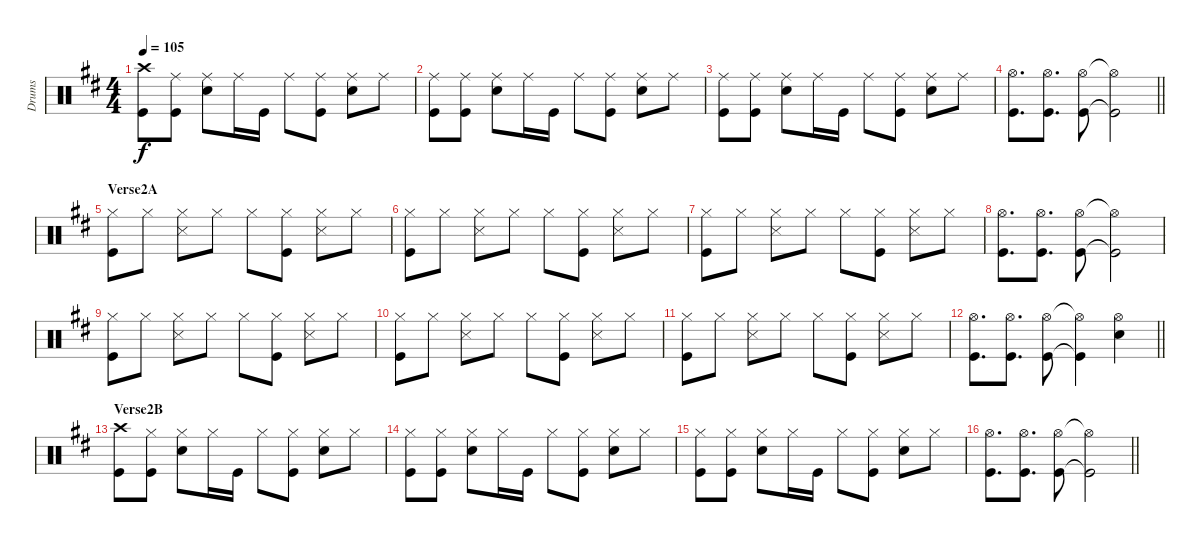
\track ("Drums" "Drums") {instrument percussion}
\staff {score}
\articulation defaults
\ts (4 4)
\tempo 105
\clef neutral
\ks d
("Crash high (hit)" "Kick (hit)").8{dy f} ("Ride (middle)" "Kick (hit)").8 ("Ride (middle)" "Snare (hit) 2").8 "Ride (middle)".16 "Kick (hit)".16 "Ride (middle)".8 ("Ride (middle)" "Kick (hit)").8 ("Ride (middle)" "Snare (hit) 2").8 "Ride (middle)".8 |
("Ride (middle)" "Kick (hit)").8 ("Ride (middle)" "Kick (hit)").8 ("Ride (middle)" "Snare (hit) 2").8 "Ride (middle)".16 "Kick (hit)".16 "Ride (middle)".8 ("Ride (middle)" "Kick (hit)").8 ("Ride (middle)" "Snare (hit) 2").8 "Ride (middle)".8 |
("Ride (middle)" "Kick (hit)").8 ("Ride (middle)" "Kick (hit)").8 ("Ride (middle)" "Snare (hit) 2").8 "Ride (middle)".16 "Kick (hit)".16 "Ride (middle)".8 ("Ride (middle)" "Kick (hit)").8 ("Ride (middle)" "Snare (hit) 2").8 "Ride (middle)".8 |
\barLineRight lightlight
("Hi-Hat (open)" "Kick (hit)").8{d} ("Kick (hit)" "Hi-Hat (open)").8{d} ("Kick (hit)" "Hi-Hat (open)").8 ("Kick (hit)"{t} "Hi-Hat (open)"{t}).2 |
\section ("" "Verse2A")
("Hi-Hat (closed)" "Kick (hit)").8 "Hi-Hat (closed)".8 ("Hi-Hat (closed)" "Snare (side stick) 3").8 "Hi-Hat (closed)".8 "Hi-Hat (closed)".8 ("Hi-Hat (closed)" "Kick (hit)").8 ("Hi-Hat (closed)" "Snare (side stick) 3").8 "Hi-Hat (closed)".8 |
("Hi-Hat (closed)" "Kick (hit)").8 "Hi-Hat (closed)".8 ("Hi-Hat (closed)" "Snare (side stick) 3").8 "Hi-Hat (closed)".8 "Hi-Hat (closed)".8 ("Hi-Hat (closed)" "Kick (hit)").8 ("Hi-Hat (closed)" "Snare (side stick) 3").8 "Hi-Hat (closed)".8 |
("Hi-Hat (closed)" "Kick (hit)").8 "Hi-Hat (closed)".8 ("Hi-Hat (closed)" "Snare (side stick) 3").8 "Hi-Hat (closed)".8 "Hi-Hat (closed)".8 ("Hi-Hat (closed)" "Kick (hit)").8 ("Hi-Hat (closed)" "Snare (side stick) 3").8 "Hi-Hat (closed)".8 |
("Hi-Hat (open)" "Kick (hit)").8{d} ("Kick (hit)" "Hi-Hat (open)").8{d} ("Kick (hit)" "Hi-Hat (open)").8 ("Kick (hit)"{t} "Hi-Hat (open)"{t}).2 |
("Hi-Hat (closed)" "Kick (hit)").8 "Hi-Hat (closed)".8 ("Hi-Hat (closed)" "Snare (side stick) 3").8 "Hi-Hat (closed)".8 "Hi-Hat (closed)".8 ("Hi-Hat (closed)" "Kick (hit)").8 ("Hi-Hat (closed)" "Snare (side stick) 3").8 "Hi-Hat (closed)".8 |
("Hi-Hat (closed)" "Kick (hit)").8 "Hi-Hat (closed)".8 ("Hi-Hat (closed)" "Snare (side stick) 3").8 "Hi-Hat (closed)".8 "Hi-Hat (closed)".8 ("Hi-Hat (closed)" "Kick (hit)").8 ("Hi-Hat (closed)" "Snare (side stick) 3").8 "Hi-Hat (closed)".8 |
("Hi-Hat (closed)" "Kick (hit)").8 "Hi-Hat (closed)".8 ("Hi-Hat (closed)" "Snare (side stick) 3").8 "Hi-Hat (closed)".8 "Hi-Hat (closed)".8 ("Hi-Hat (closed)" "Kick (hit)").8 ("Hi-Hat (closed)" "Snare (side stick) 3").8 "Hi-Hat (closed)".8 |
\barLineRight lightlight
("Hi-Hat (open)" "Kick (hit)").8{d} ("Hi-Hat (open)" "Kick (hit)").8{d} ("Hi-Hat (open)" "Kick (hit)").8 ("Hi-Hat (open)"{t} "Kick (hit)"{t}).4 ("Snare (hit) 2" "Hi-Hat (open)").4 |
\section ("" "Verse2B")
("Crash high (hit)" "Kick (hit)").8 ("Hi-Hat (closed)" "Kick (hit)").8 ("Hi-Hat (closed)" "Snare (hit) 2").8 "Hi-Hat (closed)".16 "Kick (hit)".16 "Hi-Hat (closed)".8 ("Hi-Hat (closed)" "Kick (hit)").8 ("Hi-Hat (closed)" "Snare (hit) 2").8 "Hi-Hat (closed)".8 |
("Hi-Hat (closed)" "Kick (hit)").8 ("Hi-Hat (closed)" "Kick (hit)").8 ("Hi-Hat (closed)" "Snare (hit) 2").8 "Hi-Hat (closed)".16 "Kick (hit)".16 "Hi-Hat (closed)".8 ("Hi-Hat (closed)" "Kick (hit)").8 ("Hi-Hat (closed)" "Snare (hit) 2").8 "Hi-Hat (closed)".8 |
("Hi-Hat (closed)" "Kick (hit)").8 ("Hi-Hat (closed)" "Kick (hit)").8 ("Hi-Hat (closed)" "Snare (hit) 2").8 "Hi-Hat (closed)".16 "Kick (hit)".16 "Hi-Hat (closed)".8 ("Hi-Hat (closed)" "Kick (hit)").8 ("Hi-Hat (closed)" "Snare (hit) 2").8 "Hi-Hat (closed)".8 |
\barLineRight lightlight
("Hi-Hat (open)" "Kick (hit)").8{d} ("Kick (hit)" "Hi-Hat (open)").8{d} ("Kick (hit)" "Hi-Hat (open)").8 ("Kick (hit)"{t} "Hi-Hat (open)"{t}).2
